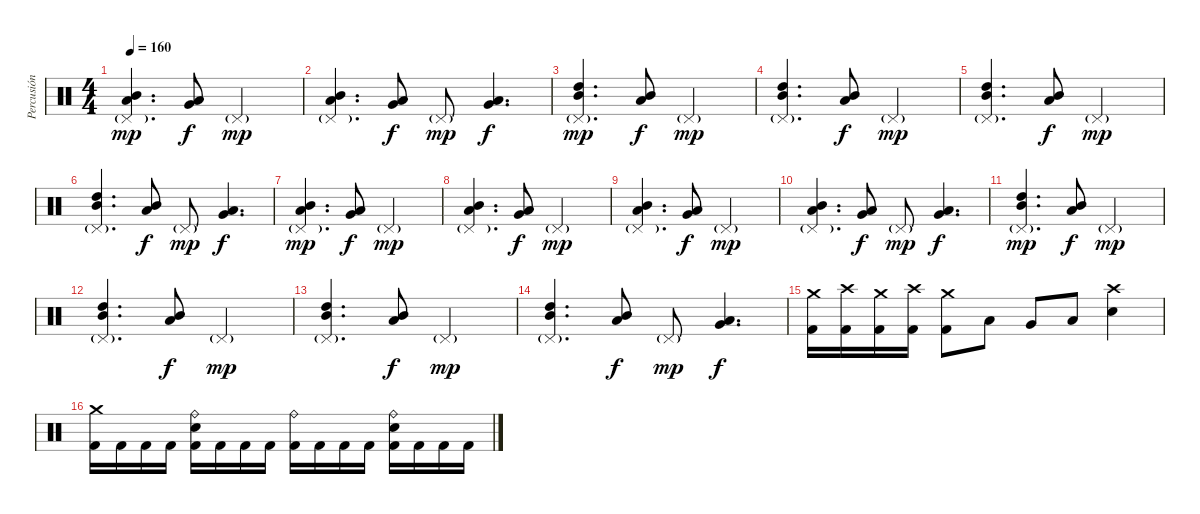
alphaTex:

\track ("Percusión" "Percusión") {instrument percussion}
\staff {score}
\articulation defaults
\ts (4 4)
\tempo 160
\clef neutral
\ks c
("Pedal Hi-Hat (hit)"{g} "Mid Tom (hit)" "Low Tom (hit)").4{d dy mp} ("Low Tom (hit)" "Very Low Tom (hit)").8{dy f} "Pedal Hi-Hat (hit)"{g}.2{dy mp} |
("Pedal Hi-Hat (hit)"{g} "Mid Tom (hit)" "Low Tom (hit)").4{d} ("Low Tom (hit)" "Very Low Tom (hit)").8{dy f} "Pedal Hi-Hat (hit)"{g}.8{dy mp} ("Very Low Tom (hit)" "Low Floor Tom (hit)").4{d dy f} |
("Pedal Hi-Hat (hit)"{g} "High Tom (hit)" "Mid Tom (hit)").4{d dy mp} ("Mid Tom (hit)" "Low Tom (hit)").8{dy f} "Pedal Hi-Hat (hit)"{g}.2{dy mp} |
("Pedal Hi-Hat (hit)"{g} "High Tom (hit)" "Mid Tom (hit)").4{d} ("Mid Tom (hit)" "Low Tom (hit)").8{dy f} "Pedal Hi-Hat (hit)"{g}.2{dy mp} |
("Pedal Hi-Hat (hit)"{g} "High Tom (hit)" "Mid Tom (hit)").4{d} ("Mid Tom (hit)" "Low Tom (hit)").8{dy f} "Pedal Hi-Hat (hit)"{g}.2{dy mp} |
("Pedal Hi-Hat (hit)"{g} "High Tom (hit)" "Mid Tom (hit)").4{d} ("Mid Tom (hit)" "Low Tom (hit)").8{dy f} "Pedal Hi-Hat (hit)"{g}.8{dy mp} ("Low Tom (hit)" "Very Low Tom (hit)").4{d dy f} |
("Pedal Hi-Hat (hit)"{g} "Mid Tom (hit)" "Low Tom (hit)").4{d dy mp} ("Low Tom (hit)" "Very Low Tom (hit)").8{dy f} "Pedal Hi-Hat (hit)"{g}.2{dy mp} |
("Pedal Hi-Hat (hit)"{g} "Mid Tom (hit)" "Low Tom (hit)").4{d} ("Low Tom (hit)" "Very Low Tom (hit)").8{dy f} "Pedal Hi-Hat (hit)"{g}.2{dy mp} |
("Pedal Hi-Hat (hit)"{g} "Mid Tom (hit)" "Low Tom (hit)").4{d} ("Low Tom (hit)" "Very Low Tom (hit)").8{dy f} "Pedal Hi-Hat (hit)"{g}.2{dy mp} |
("Pedal Hi-Hat (hit)"{g} "Mid Tom (hit)" "Low Tom (hit)").4{d} ("Low Tom (hit)" "Very Low Tom (hit)").8{dy f} "Pedal Hi-Hat (hit)"{g}.8{dy mp} ("Very Low Tom (hit)" "Low Floor Tom (hit)").4{d dy f} |
("Pedal Hi-Hat (hit)"{g} "High Tom (hit)" "Mid Tom (hit)").4{d dy mp} ("Mid Tom (hit)" "Low Tom (hit)").8{dy f} "Pedal Hi-Hat (hit)"{g}.2{dy mp} |
("Pedal Hi-Hat (hit)"{g} "High Tom (hit)" "Mid Tom (hit)").4{d} ("Mid Tom (hit)" "Low Tom (hit)").8{dy f} "Pedal Hi-Hat (hit)"{g}.2{dy mp} |
("Pedal Hi-Hat (hit)"{g} "High Tom (hit)" "Mid Tom (hit)").4{d} ("Mid Tom (hit)" "Low Tom (hit)").8{dy f} "Pedal Hi-Hat (hit)"{g}.2{dy mp} |
("Pedal Hi-Hat (hit)"{g} "High Tom (hit)" "Mid Tom (hit)").4{d} ("Mid Tom (hit)" "Low Tom (hit)").8{dy f} "Pedal Hi-Hat (hit)"{g}.8{dy mp} ("Low Tom (hit)" "Very Low Tom (hit)").4{d dy f} |
("Crash medium (hit)" "Kick (hit) 2").16 ("Crash high (hit)" "Kick (hit) 2").16 ("Crash medium (hit)" "Kick (hit) 2").16 ("Crash high (hit)" "Kick (hit) 2").16 ("Crash medium (hit)" "Kick (hit) 2").8 "Low Tom (hit)".8 "Very Low Tom (hit)".8 "Low Floor Tom (hit)".8 ("Crash high (hit)" "Electric Snare (hit)").4 |
("Crash medium (hit)" "Kick (hit) 2").16 "Kick (hit) 2".16 "Kick (hit) 2".16 "Kick (hit) 2".16 ("Ride (bell)" "Electric Snare (hit)" "Kick (hit) 2").16 "Kick (hit) 2".16 "Kick (hit) 2".16 "Kick (hit) 2".16 ("Ride (bell)" "Kick (hit) 2").16 "Kick (hit) 2".16 "Kick (hit) 2".16 "Kick (hit) 2".16 ("Ride (bell)" "Electric Snare (hit)" "Kick (hit) 2").16 "Kick (hit) 2".16 "Kick (hit) 2".16 "Kick (hit) 2".16
